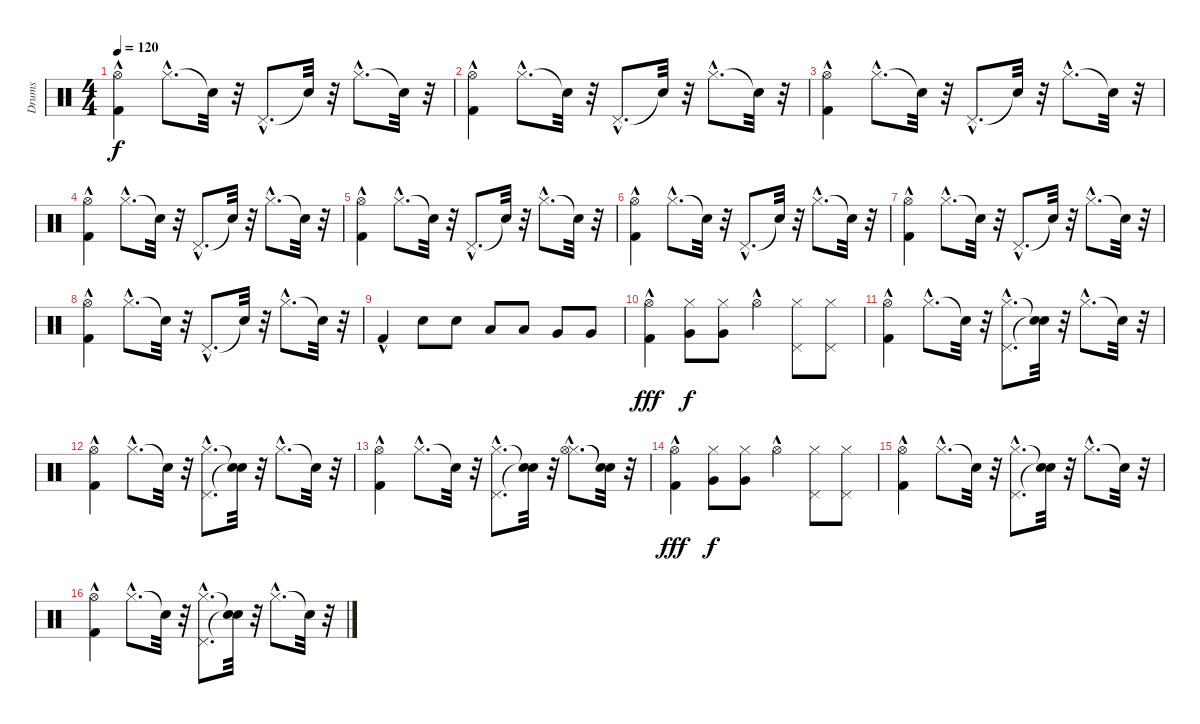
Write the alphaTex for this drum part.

\track ("Drums" "Drums") {instrument percussion}
\staff {score}
\articulation defaults
\ts (4 4)
\tempo 120
\clef neutral
\ks c
("Kick (hit) 2"{hac} "Hi-Hat (open)"{hac}).4{dy f} "Hi-Hat (closed)"{hac}.8{d} "Snare (hit)"{t}.32 r.32 "Pedal Hi-Hat (hit)"{hac}.8{d} "Snare (hit)"{t}.32 r.32 "Hi-Hat (closed)"{hac}.8{d} "Snare (hit)"{t}.32 r.32 |
("Kick (hit) 2"{hac} "Hi-Hat (open)"{hac}).4 "Hi-Hat (closed)"{hac}.8{d} "Snare (hit)"{t}.32 r.32 "Pedal Hi-Hat (hit)"{hac}.8{d} "Snare (hit)"{t}.32 r.32 "Hi-Hat (closed)"{hac}.8{d} "Snare (hit)"{t}.32 r.32 |
("Kick (hit) 2"{hac} "Hi-Hat (open)"{hac}).4 "Hi-Hat (closed)"{hac}.8{d} "Snare (hit)"{t}.32 r.32 "Pedal Hi-Hat (hit)"{hac}.8{d} "Snare (hit)"{t}.32 r.32 "Hi-Hat (closed)"{hac}.8{d} "Snare (hit)"{t}.32 r.32 |
("Kick (hit) 2"{hac} "Hi-Hat (open)"{hac}).4 "Hi-Hat (closed)"{hac}.8{d} "Snare (hit)"{t}.32 r.32 "Pedal Hi-Hat (hit)"{hac}.8{d} "Snare (hit)"{t}.32 r.32 "Hi-Hat (closed)"{hac}.8{d} "Snare (hit)"{t}.32 r.32 |
("Kick (hit) 2"{hac} "Hi-Hat (open)"{hac}).4 "Hi-Hat (closed)"{hac}.8{d} "Snare (hit)"{t}.32 r.32 "Pedal Hi-Hat (hit)"{hac}.8{d} "Snare (hit)"{t}.32 r.32 "Hi-Hat (closed)"{hac}.8{d} "Snare (hit)"{t}.32 r.32 |
("Kick (hit) 2"{hac} "Hi-Hat (open)"{hac}).4 "Hi-Hat (closed)"{hac}.8{d} "Snare (hit)"{t}.32 r.32 "Pedal Hi-Hat (hit)"{hac}.8{d} "Snare (hit)"{t}.32 r.32 "Hi-Hat (closed)"{hac}.8{d} "Snare (hit)"{t}.32 r.32 |
("Kick (hit) 2"{hac} "Hi-Hat (open)"{hac}).4 "Hi-Hat (closed)"{hac}.8{d} "Snare (hit)"{t}.32 r.32 "Pedal Hi-Hat (hit)"{hac}.8{d} "Snare (hit)"{t}.32 r.32 "Hi-Hat (closed)"{hac}.8{d} "Snare (hit)"{t}.32 r.32 |
("Kick (hit) 2"{hac} "Hi-Hat (open)"{hac}).4 "Hi-Hat (closed)"{hac}.8{d} "Snare (hit)"{t}.32 r.32 "Pedal Hi-Hat (hit)"{hac}.8{d} "Snare (hit)"{t}.32 r.32 "Hi-Hat (closed)"{hac}.8{d} "Snare (hit)"{t}.32 r.32 |
"Kick (hit) 2"{hac}.4 "Electric Snare (hit)".8 "Electric Snare (hit)".8 "Low Floor Tom (hit)".8 "Low Floor Tom (hit)".8 "Very Low Tom (hit)".8 "Very Low Tom (hit)".8 |
("Kick (hit) 2"{hac} "Hi-Hat (open)").4{dy fff} ("Hi-Hat (closed)" "Very Low Tom (hit)").8{dy f} ("Hi-Hat (closed)" "Very Low Tom (hit)").8 "Hi-Hat (open)"{hac}.4 ("Hi-Hat (closed)" "Pedal Hi-Hat (hit)").8 ("Hi-Hat (closed)" "Pedal Hi-Hat (hit)").8 |
("Kick (hit) 2"{hac} "Hi-Hat (open)"{hac}).4 "Hi-Hat (closed)"{hac}.8{d} "Snare (hit)"{t}.32 r.32 ("Hi-Hat (closed)"{hac} "Pedal Hi-Hat (hit)"{hac}).8{d} ("Snare (hit)"{t} "Snare (hit)"{t}).32 r.32 "Hi-Hat (closed)"{hac}.8{d} "Snare (hit)"{t}.32 r.32 |
("Kick (hit) 2"{hac} "Hi-Hat (open)"{hac}).4 "Hi-Hat (closed)"{hac}.8{d} "Snare (hit)"{t}.32 r.32 ("Hi-Hat (closed)"{hac} "Pedal Hi-Hat (hit)"{hac}).8{d} ("Snare (hit)"{t} "Snare (hit)"{t}).32 r.32 "Hi-Hat (closed)"{hac}.8{d} "Snare (hit)"{t}.32 r.32 |
("Kick (hit) 2"{hac} "Hi-Hat (open)").4 "Hi-Hat (closed)"{hac}.8{d} "Snare (hit)"{t}.32 r.32 ("Hi-Hat (closed)"{hac} "Pedal Hi-Hat (hit)"{hac}).8{d} ("Snare (hit)"{t} "Snare (hit)"{t}).32 r.32 ("Hi-Hat (closed)"{hac} "Hi-Hat (open)"{hac}).8{d} ("Snare (hit)"{t} "Snare (hit)"{t}).32 r.32 |
("Kick (hit) 2"{hac} "Hi-Hat (open)").4{dy fff} ("Hi-Hat (closed)" "Very Low Tom (hit)").8{dy f} ("Hi-Hat (closed)" "Very Low Tom (hit)").8 "Hi-Hat (open)"{hac}.4 ("Hi-Hat (closed)" "Pedal Hi-Hat (hit)").8 ("Hi-Hat (closed)" "Pedal Hi-Hat (hit)").8 |
("Kick (hit) 2"{hac} "Hi-Hat (open)"{hac}).4 "Hi-Hat (closed)"{hac}.8{d} "Snare (hit)"{t}.32 r.32 ("Hi-Hat (closed)"{hac} "Pedal Hi-Hat (hit)"{hac}).8{d} ("Snare (hit)"{t} "Snare (hit)"{t}).32 r.32 "Hi-Hat (closed)"{hac}.8{d} "Snare (hit)"{t}.32 r.32 |
("Kick (hit) 2"{hac} "Hi-Hat (open)"{hac}).4 "Hi-Hat (closed)"{hac}.8{d} "Snare (hit)"{t}.32 r.32 ("Hi-Hat (closed)"{hac} "Pedal Hi-Hat (hit)"{hac}).8{d} ("Snare (hit)"{t} "Snare (hit)"{t}).32 r.32 "Hi-Hat (closed)"{hac}.8{d} "Snare (hit)"{t}.32 r.32
